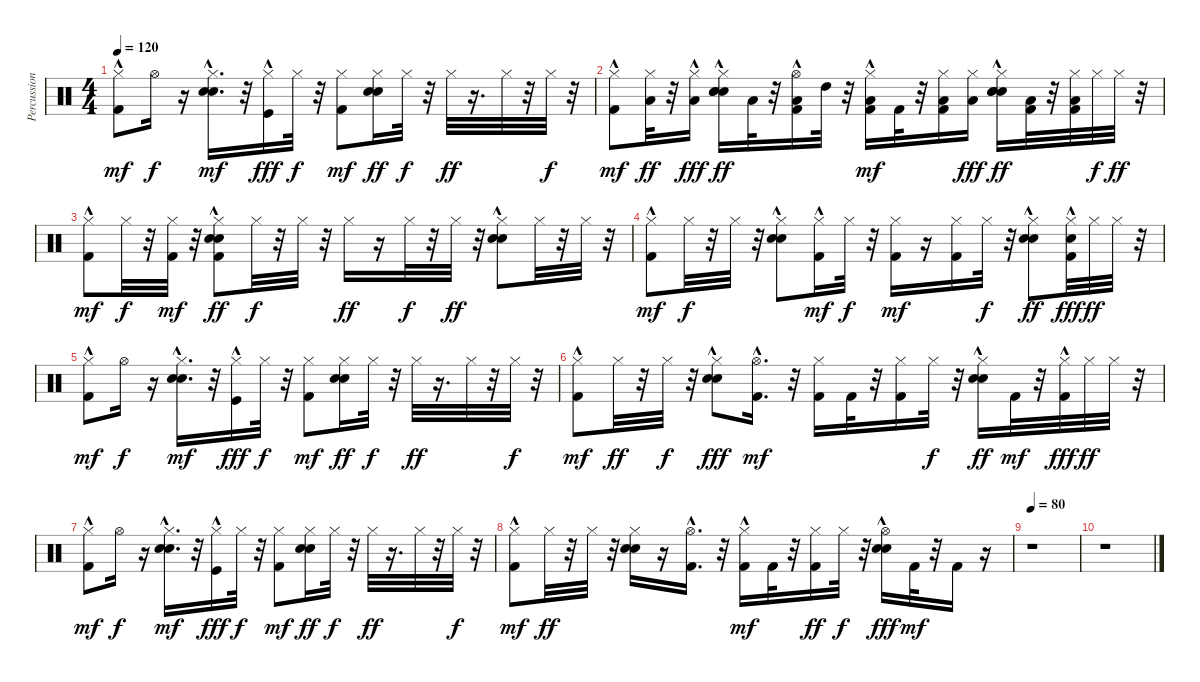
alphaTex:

\track ("Percussion" "Percussion") {instrument percussion}
\staff {score}
\articulation defaults
\ts (4 4)
\tempo 120
\clef neutral
\ks c
("Kick (hit) 2" "Hi-Hat (closed)"{hac}).8{dy mf} "Hi-Hat (open)".16{dy f} r.16 ("Hand Clap (hit)"{hac} "Snare (hit) 2"{hac} "Hi-Hat (closed)").16{d dy mf} r.32 ("Kick (hit)"{hac} "Hi-Hat (closed)").16{dy fff} "Hi-Hat (closed)".32{dy f} r.32 ("Hi-Hat (closed)" "Kick (hit) 2").8{dy mf} ("Hand Clap (hit)" "Snare (hit) 2" "Hi-Hat (closed)").16{dy ff} "Hi-Hat (closed)".32{dy f} r.32 "Hi-Hat (closed)".32{dy ff} r.16{d} "Hi-Hat (closed)".32 r.32 "Hi-Hat (closed)".32{dy f} r.32 |
("Hi-Hat (closed)"{hac} "Kick (hit) 2").8{dy mf} ("Low Tom (hit)" "Hi-Hat (closed)").32{dy ff} r.32 ("Low Tom (hit)"{hac} "Hi-Hat (closed)").16{dy fff} ("Snare (hit) 2" "Hand Clap (hit)" "Electric Snare (hit)" "Hi-Hat (closed)"{hac}).16{dy ff} "Low Tom (hit)".32 r.32 ("Low Floor Tom (hit)" "Kick (hit) 2"{hac} "Hi-Hat (open)").16 "High Tom (hit)".32 r.32 ("Low Tom (hit)"{hac} "Kick (hit) 2" "Hi-Hat (closed)").16{dy mf} "Kick (hit) 2".32 r.32 ("Low Tom (hit)" "Kick (hit) 2" "Hi-Hat (closed)").16 ("Low Tom (hit)" "Hi-Hat (closed)").16{dy fff} ("Hand Clap (hit)"{hac} "Snare (hit) 2"{hac} "Electric Snare (hit)"{hac} "Hi-Hat (closed)"{hac}).16{dy ff} ("Kick (hit) 2" "Low Tom (hit)").32 r.32 ("Kick (hit) 2" "Low Floor Tom (hit)" "Hi-Hat (closed)").32 "Hi-Hat (closed)".32{dy f} "Hi-Hat (closed)".32{dy ff} r.32 |
("Hi-Hat (closed)"{hac} "Kick (hit) 2").8{dy mf} "Hi-Hat (closed)".32{dy f} r.32 ("Kick (hit) 2" "Hi-Hat (closed)").32{dy mf} r.32 ("Kick (hit) 2"{hac} "Hi-Hat (closed)"{hac} "Hand Clap (hit)"{hac} "Snare (hit) 2"{hac}).8{dy ff} "Hi-Hat (closed)".32{dy f} r.32 "Hi-Hat (closed)".32 r.32 "Hi-Hat (closed)".16{dy ff} r.16 "Hi-Hat (closed)".32{dy f} r.32 "Hi-Hat (closed)".32{dy ff} r.32 ("Hi-Hat (closed)" "Hand Clap (hit)"{hac} "Snare (hit) 2"{hac}).8 "Hi-Hat (closed)".32 r.32 "Hi-Hat (closed)".32 r.32 |
("Hi-Hat (closed)"{hac} "Kick (hit) 2").8{dy mf} "Hi-Hat (closed)".32{dy f} r.32 "Hi-Hat (closed)".32 r.32 ("Hi-Hat (closed)" "Hand Clap (hit)"{hac} "Snare (hit) 2"{hac}).8 ("Kick (hit) 2"{hac} "Hi-Hat (closed)").16{dy mf} "Hi-Hat (closed)".32{dy f} r.32 ("Hi-Hat (closed)" "Kick (hit) 2").16{dy mf} r.16 ("Kick (hit) 2" "Hi-Hat (closed)").16 "Hi-Hat (closed)".32{dy f} r.32 ("Hi-Hat (closed)" "Hand Clap (hit)"{hac} "Snare (hit) 2"{hac}).8{dy ff} ("Hi-Hat (closed)" "Kick (hit) 2"{hac} "Electric Snare (hit)").32{dy fff} "Hi-Hat (closed)".32{dy ff} "Hi-Hat (closed)".32 r.32 |
("Kick (hit) 2" "Hi-Hat (closed)"{hac}).8{dy mf} "Hi-Hat (open)".16{dy f} r.16 ("Hand Clap (hit)"{hac} "Snare (hit) 2"{hac} "Hi-Hat (closed)").16{d dy mf} r.32 ("Kick (hit)"{hac} "Hi-Hat (closed)").16{dy fff} "Hi-Hat (closed)".32{dy f} r.32 ("Hi-Hat (closed)" "Kick (hit) 2").8{dy mf} ("Hand Clap (hit)" "Snare (hit) 2" "Hi-Hat (closed)").16{dy ff} "Hi-Hat (closed)".32{dy f} r.32 "Hi-Hat (closed)".32{dy ff} r.16{d} "Hi-Hat (closed)".32 r.32 "Hi-Hat (closed)".32{dy f} r.32 |
("Kick (hit) 2" "Hi-Hat (closed)"{hac}).8{dy mf} "Hi-Hat (closed)".32{dy ff} r.32 "Hi-Hat (closed)".32{dy f} r.32 ("Hand Clap (hit)" "Snare (hit) 2" "Hi-Hat (closed)"{hac}).8{dy fff} ("Kick (hit) 2"{hac} "Hi-Hat (open)").16{d dy mf} r.32 ("Kick (hit) 2" "Hi-Hat (closed)").16 "Kick (hit) 2".32 r.32 ("Kick (hit) 2" "Hi-Hat (closed)").16 "Hi-Hat (closed)".32{dy f} r.32 ("Hand Clap (hit)"{hac} "Electric Snare (hit)"{hac} "Hi-Hat (closed)").16{dy ff} "Kick (hit) 2".32{dy mf} r.32 ("Kick (hit) 2"{hac} "Hi-Hat (closed)").32{dy fff} "Hi-Hat (closed)".32{dy ff} "Hi-Hat (closed)".32 r.32 |
("Kick (hit) 2" "Hi-Hat (closed)"{hac}).8{dy mf} "Hi-Hat (open)".16{dy f} r.16 ("Hand Clap (hit)"{hac} "Snare (hit) 2"{hac} "Hi-Hat (closed)").16{d dy mf} r.32 ("Kick (hit)"{hac} "Hi-Hat (closed)").16{dy fff} "Hi-Hat (closed)".32{dy f} r.32 ("Hi-Hat (closed)" "Kick (hit) 2").8{dy mf} ("Hand Clap (hit)" "Snare (hit) 2" "Hi-Hat (closed)").16{dy ff} "Hi-Hat (closed)".32{dy f} r.32 "Hi-Hat (closed)".32{dy ff} r.16{d} "Hi-Hat (closed)".32 r.32 "Hi-Hat (closed)".32{dy f} r.32 |
("Hi-Hat (closed)"{hac} "Kick (hit) 2").8{dy mf} "Hi-Hat (closed)".32{dy ff} r.32 "Hi-Hat (closed)".32 r.32 ("Hi-Hat (closed)" "Hand Clap (hit)" "Snare (hit) 2").16 r.16 ("Kick (hit) 2"{hac} "Hi-Hat (open)").16{d} r.32 ("Hi-Hat (closed)"{hac} "Kick (hit) 2").16{dy mf} "Kick (hit) 2".32 r.32 ("Kick (hit) 2" "Hi-Hat (closed)").16{dy ff} "Hi-Hat (closed)".32{dy f} r.32 ("Hand Clap (hit)"{hac} "Electric Snare (hit)"{hac} "Hi-Hat (open)").16{dy fff} "Kick (hit) 2".32{dy mf} r.32 "Kick (hit) 2".16 r.16 |
\tempo 80
r.1 |
r.1
